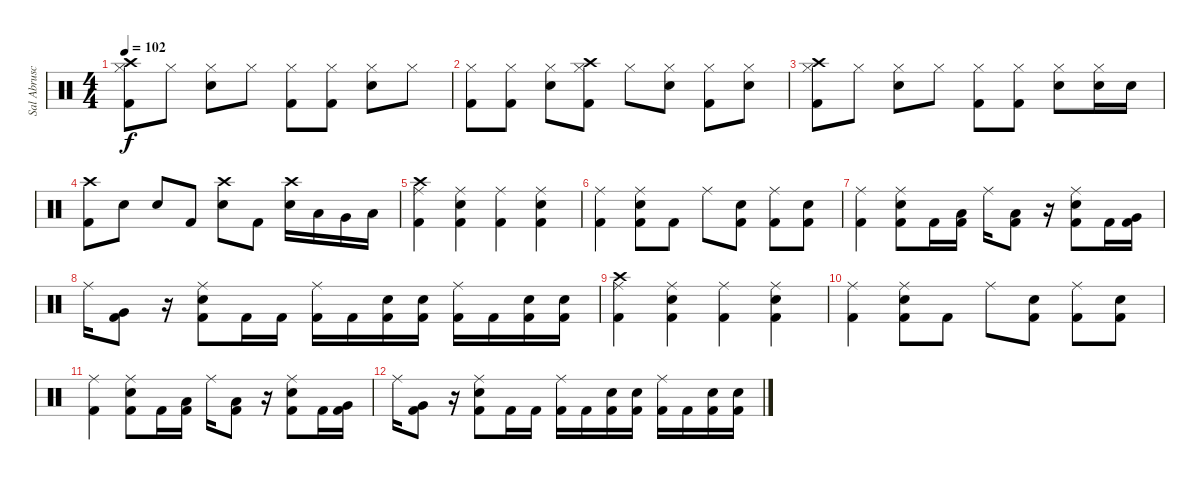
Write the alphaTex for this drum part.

\track ("Sal Abruscato (Drums)" "Sal Abrusc") {instrument percussion}
\staff {score}
\articulation defaults
\ts (4 4)
\tempo 102
\clef neutral
\ks c
("Crash high (hit)" "Hi-Hat (closed)" "Kick (hit) 2").8{dy f} "Hi-Hat (closed)".8 ("Hi-Hat (closed)" "Electric Snare (hit)").8 "Hi-Hat (closed)".8 ("Hi-Hat (closed)" "Kick (hit) 2").8 ("Hi-Hat (closed)" "Kick (hit) 2").8 ("Hi-Hat (closed)" "Electric Snare (hit)").8 "Hi-Hat (closed)".8 |
("Hi-Hat (closed)" "Kick (hit) 2").8 ("Hi-Hat (closed)" "Kick (hit) 2").8 ("Hi-Hat (closed)" "Electric Snare (hit)").8 ("Crash high (hit)" "Hi-Hat (closed)" "Kick (hit) 2").8 "Hi-Hat (closed)".8 ("Hi-Hat (closed)" "Electric Snare (hit)").8 ("Hi-Hat (closed)" "Kick (hit) 2").8 ("Hi-Hat (closed)" "Electric Snare (hit)").8 |
("Crash high (hit)" "Hi-Hat (closed)" "Kick (hit) 2").8 "Hi-Hat (closed)".8 ("Hi-Hat (closed)" "Electric Snare (hit)").8 "Hi-Hat (closed)".8 ("Hi-Hat (closed)" "Kick (hit) 2").8 ("Hi-Hat (closed)" "Kick (hit) 2").8 ("Hi-Hat (closed)" "Electric Snare (hit)").8 ("Electric Snare (hit)" "Hi-Hat (closed)").16 "Electric Snare (hit)".16 |
("Crash high (hit)" "Kick (hit) 2").8 "Electric Snare (hit)".8 "Electric Snare (hit)".8 "Kick (hit) 2".8 ("Crash high (hit)" "Electric Snare (hit)").8 "Kick (hit) 2".8 ("Crash high (hit)" "Electric Snare (hit)").16 "Low Tom (hit)".16 "Very Low Tom (hit)".16 "Low Floor Tom (hit)".16 |
("Crash high (hit)" "Ride (middle)" "Kick (hit) 2").4 ("Ride (middle)" "Kick (hit) 2" "Electric Snare (hit)").4 ("Ride (middle)" "Kick (hit) 2").4 ("Ride (middle)" "Kick (hit) 2" "Electric Snare (hit)").4 |
("Ride (middle)" "Kick (hit) 2").4 ("Ride (middle)" "Kick (hit) 2" "Electric Snare (hit)").8 "Kick (hit) 2".8 "Ride (middle)".8 ("Kick (hit) 2" "Electric Snare (hit)").8 ("Ride (middle)" "Kick (hit) 2").8 ("Electric Snare (hit)" "Kick (hit) 2").8 |
("Ride (middle)" "Kick (hit) 2").4 ("Ride (middle)" "Kick (hit) 2" "Electric Snare (hit)").8 "Kick (hit) 2".16 ("Kick (hit) 2" "Low Tom (hit)").16 "Ride (middle)".16 ("Kick (hit) 2" "Low Tom (hit)").8 r.16 ("Ride (middle)" "Kick (hit) 2" "Electric Snare (hit)").8 "Kick (hit) 2".16 ("Very Low Tom (hit)" "Kick (hit) 2").16 |
"Ride (middle)".16 ("Kick (hit) 2" "Very Low Tom (hit)").8 r.16 ("Ride (middle)" "Kick (hit) 2" "Electric Snare (hit)").8 "Kick (hit) 2".16 "Kick (hit) 2".16 ("Ride (middle)" "Kick (hit) 2").16 "Kick (hit) 2".16 ("Kick (hit) 2" "Electric Snare (hit)").16 ("Kick (hit) 2" "Electric Snare (hit)").16 ("Ride (middle)" "Kick (hit) 2").16 "Kick (hit) 2".16 ("Kick (hit) 2" "Electric Snare (hit)").16 ("Kick (hit) 2" "Electric Snare (hit)").16 |
("Crash high (hit)" "Ride (middle)" "Kick (hit) 2").4 ("Ride (middle)" "Kick (hit) 2" "Electric Snare (hit)").4 ("Ride (middle)" "Kick (hit) 2").4 ("Ride (middle)" "Kick (hit) 2" "Electric Snare (hit)").4 |
("Ride (middle)" "Kick (hit) 2").4 ("Ride (middle)" "Kick (hit) 2" "Electric Snare (hit)").8 "Kick (hit) 2".8 "Ride (middle)".8 ("Kick (hit) 2" "Electric Snare (hit)").8 ("Ride (middle)" "Kick (hit) 2").8 ("Electric Snare (hit)" "Kick (hit) 2").8 |
("Ride (middle)" "Kick (hit) 2").4 ("Ride (middle)" "Kick (hit) 2" "Electric Snare (hit)").8 "Kick (hit) 2".16 ("Kick (hit) 2" "Low Tom (hit)").16 "Ride (middle)".16 ("Kick (hit) 2" "Low Tom (hit)").8 r.16 ("Ride (middle)" "Kick (hit) 2" "Electric Snare (hit)").8 "Kick (hit) 2".16 ("Very Low Tom (hit)" "Kick (hit) 2").16 |
"Ride (middle)".16 ("Kick (hit) 2" "Very Low Tom (hit)").8 r.16 ("Ride (middle)" "Kick (hit) 2" "Electric Snare (hit)").8 "Kick (hit) 2".16 "Kick (hit) 2".16 ("Ride (middle)" "Kick (hit) 2").16 "Kick (hit) 2".16 ("Kick (hit) 2" "Electric Snare (hit)").16 ("Kick (hit) 2" "Electric Snare (hit)").16 ("Ride (middle)" "Kick (hit) 2").16 "Kick (hit) 2".16 ("Kick (hit) 2" "Electric Snare (hit)").16 ("Kick (hit) 2" "Electric Snare (hit)").16
